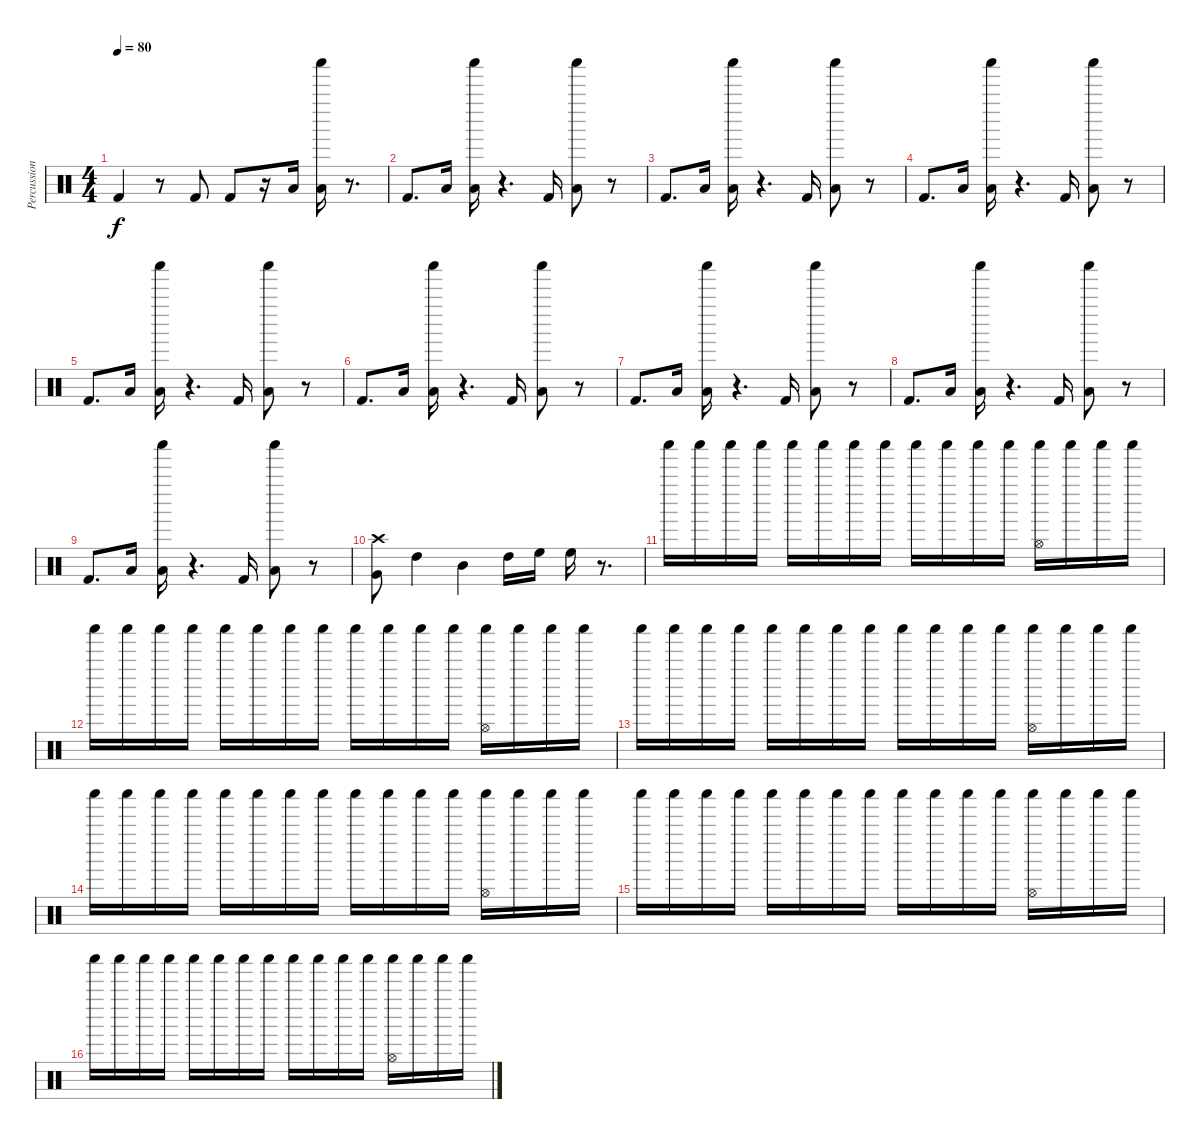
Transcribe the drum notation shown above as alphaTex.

\track ("Percussion" "Percussion") {instrument percussion bank 10}
\staff {score}
\articulation defaults
\ts (4 4)
\tempo 80
\clef neutral
\ks c "Kick (hit) 2".4{dy f}
r.8 "Kick (hit) 2".8 "Kick (hit) 2".8 r.16 "Low Floor Tom (hit)".16 ("Shaker (hit)" "Low Floor Tom (hit)").16 r.8{d} |
"Kick (hit) 2".8{d} "Low Floor Tom (hit)".16 ("Shaker (hit)" "Low Floor Tom (hit)").16 r.4{d} "Kick (hit) 2".16 ("Shaker (hit)" "Low Floor Tom (hit)").8 r.8 |
"Kick (hit) 2".8{d} "Low Floor Tom (hit)".16 ("Shaker (hit)" "Low Floor Tom (hit)").16 r.4{d} "Kick (hit) 2".16 ("Shaker (hit)" "Low Floor Tom (hit)").8 r.8 |
"Kick (hit) 2".8{d} "Low Floor Tom (hit)".16 ("Shaker (hit)" "Low Floor Tom (hit)").16 r.4{d} "Kick (hit) 2".16 ("Shaker (hit)" "Low Floor Tom (hit)").8 r.8 |
"Kick (hit) 2".8{d} "Low Floor Tom (hit)".16 ("Shaker (hit)" "Low Floor Tom (hit)").16 r.4{d} "Kick (hit) 2".16 ("Shaker (hit)" "Low Floor Tom (hit)").8 r.8 |
"Kick (hit) 2".8{d} "Low Floor Tom (hit)".16 ("Shaker (hit)" "Low Floor Tom (hit)").16 r.4{d} "Kick (hit) 2".16 ("Shaker (hit)" "Low Floor Tom (hit)").8 r.8 |
"Kick (hit) 2".8{d} "Low Floor Tom (hit)".16 ("Shaker (hit)" "Low Floor Tom (hit)").16 r.4{d} "Kick (hit) 2".16 ("Shaker (hit)" "Low Floor Tom (hit)").8 r.8 |
"Kick (hit) 2".8{d} "Low Floor Tom (hit)".16 ("Shaker (hit)" "Low Floor Tom (hit)").16 r.4{d} "Kick (hit) 2".16 ("Shaker (hit)" "Low Floor Tom (hit)").8 r.8 |
"Kick (hit) 2".8{d} "Low Floor Tom (hit)".16 ("Shaker (hit)" "Low Floor Tom (hit)").16 r.4{d} "Kick (hit) 2".16 ("Shaker (hit)" "Low Floor Tom (hit)").8 r.8 |
("Crash high (hit)" "Very Low Tom (hit)").8 "High Tom (hit)".4 "Mid Tom (hit)".4 "High Tom (hit)".16 "High Floor Tom (hit)".16 "High Floor Tom (hit)".16 r.8{d} |
"Shaker (hit)".16 "Shaker (hit)".16 "Shaker (hit)".16 "Shaker (hit)".16 "Shaker (hit)".16 "Shaker (hit)".16 "Shaker (hit)".16 "Shaker (hit)".16 "Shaker (hit)".16 "Shaker (hit)".16 "Shaker (hit)".16 "Shaker (hit)".16 ("Hi-Hat (open)" "Shaker (hit)").16 "Shaker (hit)".16 "Shaker (hit)".16 "Shaker (hit)".16 |
"Shaker (hit)".16 "Shaker (hit)".16 "Shaker (hit)".16 "Shaker (hit)".16 "Shaker (hit)".16 "Shaker (hit)".16 "Shaker (hit)".16 "Shaker (hit)".16 "Shaker (hit)".16 "Shaker (hit)".16 "Shaker (hit)".16 "Shaker (hit)".16 ("Hi-Hat (open)" "Shaker (hit)").16 "Shaker (hit)".16 "Shaker (hit)".16 "Shaker (hit)".16 |
"Shaker (hit)".16 "Shaker (hit)".16 "Shaker (hit)".16 "Shaker (hit)".16 "Shaker (hit)".16 "Shaker (hit)".16 "Shaker (hit)".16 "Shaker (hit)".16 "Shaker (hit)".16 "Shaker (hit)".16 "Shaker (hit)".16 "Shaker (hit)".16 ("Hi-Hat (open)" "Shaker (hit)").16 "Shaker (hit)".16 "Shaker (hit)".16 "Shaker (hit)".16 |
"Shaker (hit)".16 "Shaker (hit)".16 "Shaker (hit)".16 "Shaker (hit)".16 "Shaker (hit)".16 "Shaker (hit)".16 "Shaker (hit)".16 "Shaker (hit)".16 "Shaker (hit)".16 "Shaker (hit)".16 "Shaker (hit)".16 "Shaker (hit)".16 ("Hi-Hat (open)" "Shaker (hit)").16 "Shaker (hit)".16 "Shaker (hit)".16 "Shaker (hit)".16 |
"Shaker (hit)".16 "Shaker (hit)".16 "Shaker (hit)".16 "Shaker (hit)".16 "Shaker (hit)".16 "Shaker (hit)".16 "Shaker (hit)".16 "Shaker (hit)".16 "Shaker (hit)".16 "Shaker (hit)".16 "Shaker (hit)".16 "Shaker (hit)".16 ("Hi-Hat (open)" "Shaker (hit)").16 "Shaker (hit)".16 "Shaker (hit)".16 "Shaker (hit)".16 |
"Shaker (hit)".16 "Shaker (hit)".16 "Shaker (hit)".16 "Shaker (hit)".16 "Shaker (hit)".16 "Shaker (hit)".16 "Shaker (hit)".16 "Shaker (hit)".16 "Shaker (hit)".16 "Shaker (hit)".16 "Shaker (hit)".16 "Shaker (hit)".16 ("Hi-Hat (open)" "Shaker (hit)").16 "Shaker (hit)".16 "Shaker (hit)".16 "Shaker (hit)".16
